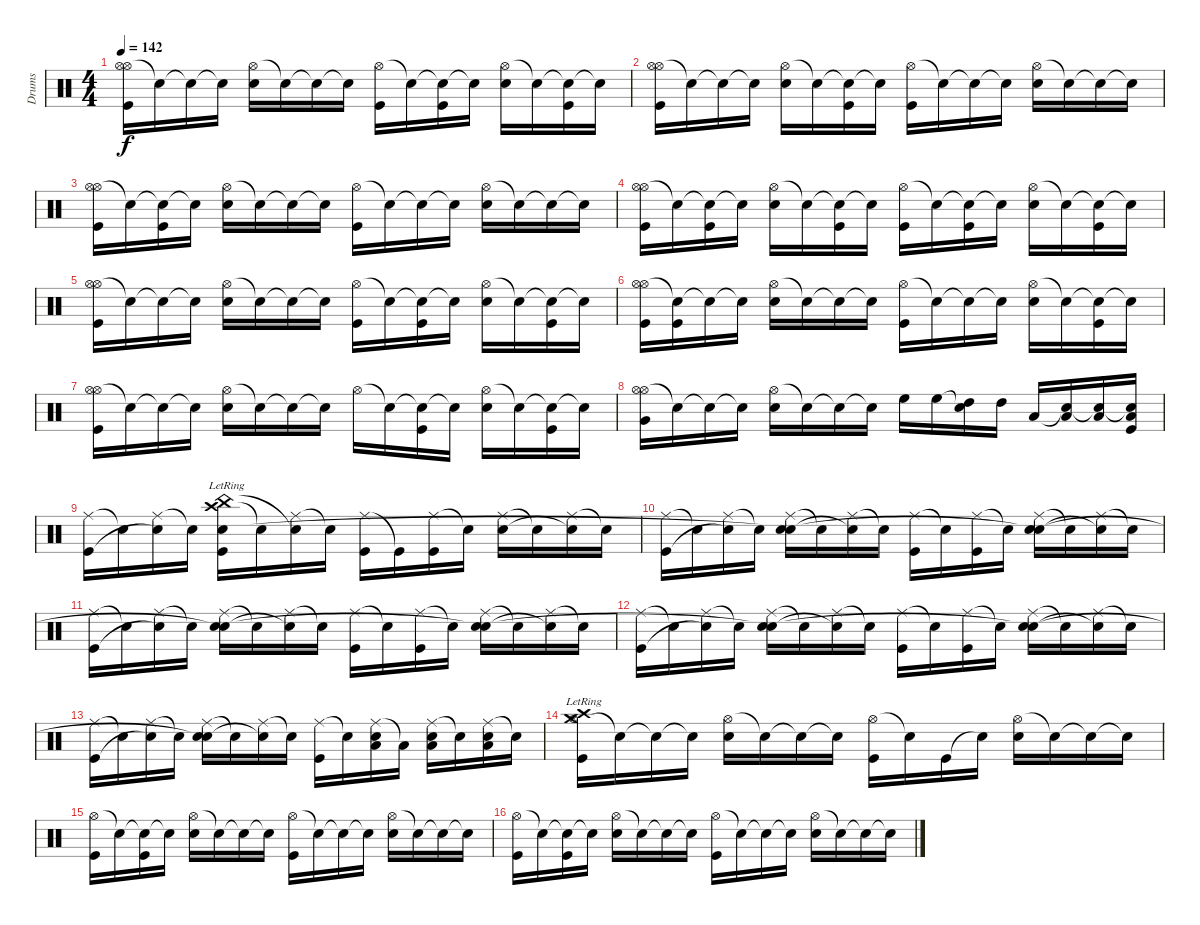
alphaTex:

\track ("Drums" "Drums") {instrument percussion}
\staff {score}
\articulation defaults
\ts (4 4)
\tempo 142
\clef neutral
\ks c
("Hi-Hat (open)" "Hi-Hat (open)" "Kick (hit)").16{dy f} "Snare (hit)"{t}.16 "Snare (hit)"{t}.16 "Snare (hit)"{t}.16 ("Hi-Hat (open)" "Snare (hit) 2").16 "Snare (hit)"{t}.16 "Snare (hit)"{t}.16 "Snare (hit)"{t}.16 ("Hi-Hat (open)" "Kick (hit)").16 "Snare (hit)"{t}.16 ("Snare (hit)"{t} "Kick (hit)").16 "Snare (hit)"{t}.16 ("Hi-Hat (open)" "Snare (hit) 2").16 "Snare (hit)"{t}.16 ("Snare (hit)"{t} "Kick (hit)").16 "Snare (hit)"{t}.16 |
("Hi-Hat (open)" "Hi-Hat (open)" "Kick (hit)").16 "Snare (hit)"{t}.16 "Snare (hit)"{t}.16 "Snare (hit)"{t}.16 ("Hi-Hat (open)" "Snare (hit) 2").16 "Snare (hit)"{t}.16 ("Snare (hit)"{t} "Kick (hit)").16 "Snare (hit)"{t}.16 ("Hi-Hat (open)" "Kick (hit)").16 "Snare (hit)"{t}.16 "Snare (hit)"{t}.16 "Snare (hit)"{t}.16 ("Hi-Hat (open)" "Snare (hit) 2").16 "Snare (hit)"{t}.16 "Snare (hit)"{t}.16 "Snare (hit)"{t}.16 |
("Hi-Hat (open)" "Hi-Hat (open)" "Kick (hit)").16 "Snare (hit)"{t}.16 ("Snare (hit)"{t} "Kick (hit)").16 "Snare (hit)"{t}.16 ("Hi-Hat (open)" "Snare (hit) 2").16 "Snare (hit)"{t}.16 "Snare (hit)"{t}.16 "Snare (hit)"{t}.16 ("Hi-Hat (open)" "Kick (hit)").16 "Snare (hit)"{t}.16 "Snare (hit)"{t}.16 "Snare (hit)"{t}.16 ("Hi-Hat (open)" "Snare (hit) 2").16 "Snare (hit)"{t}.16 "Snare (hit)"{t}.16 "Snare (hit)"{t}.16 |
("Hi-Hat (open)" "Hi-Hat (open)" "Kick (hit)").16 "Snare (hit)"{t}.16 ("Snare (hit)"{t} "Kick (hit)").16 "Snare (hit)"{t}.16 ("Hi-Hat (open)" "Snare (hit) 2").16 "Snare (hit)"{t}.16 ("Snare (hit)"{t} "Kick (hit)").16 "Snare (hit)"{t}.16 ("Hi-Hat (open)" "Kick (hit)").16 "Snare (hit)"{t}.16 ("Snare (hit)"{t} "Kick (hit)").16 "Snare (hit)"{t}.16 ("Hi-Hat (open)" "Snare (hit) 2").16 "Snare (hit)"{t}.16 ("Snare (hit)"{t} "Kick (hit)").16 "Snare (hit)"{t}.16 |
("Hi-Hat (open)" "Hi-Hat (open)" "Kick (hit)").16 "Snare (hit)"{t}.16 "Snare (hit)"{t}.16 "Snare (hit)"{t}.16 ("Hi-Hat (open)" "Snare (hit) 2").16 "Snare (hit)"{t}.16 "Snare (hit)"{t}.16 "Snare (hit)"{t}.16 ("Hi-Hat (open)" "Kick (hit)").16 "Snare (hit)"{t}.16 ("Snare (hit)"{t} "Kick (hit)").16 "Snare (hit)"{t}.16 ("Hi-Hat (open)" "Snare (hit) 2").16 "Snare (hit)"{t}.16 ("Snare (hit)"{t} "Kick (hit)").16 "Snare (hit)"{t}.16 |
("Hi-Hat (open)" "Hi-Hat (open)" "Kick (hit)").16 ("Snare (hit)"{t} "Kick (hit)").16 "Snare (hit)"{t}.16 "Snare (hit)"{t}.16 ("Hi-Hat (open)" "Snare (hit) 2").16 "Snare (hit)"{t}.16 "Snare (hit)"{t}.16 "Snare (hit)"{t}.16 ("Hi-Hat (open)" "Kick (hit)").16 "Snare (hit)"{t}.16 "Snare (hit)"{t}.16 "Snare (hit)"{t}.16 ("Hi-Hat (open)" "Snare (hit) 2").16 "Snare (hit)"{t}.16 ("Snare (hit)"{t} "Kick (hit)").16 "Snare (hit)"{t}.16 |
("Hi-Hat (open)" "Hi-Hat (open)" "Kick (hit)").16 "Snare (hit)"{t}.16 "Snare (hit)"{t}.16 "Snare (hit)"{t}.16 ("Hi-Hat (open)" "Snare (hit) 2").16 "Snare (hit)"{t}.16 "Snare (hit)"{t}.16 "Snare (hit)"{t}.16 "Hi-Hat (open)".16 "Snare (hit)"{t}.16 ("Snare (hit)"{t} "Kick (hit)").16 "Snare (hit)"{t}.16 ("Hi-Hat (open)" "Snare (hit) 2").16 "Snare (hit)"{t}.16 ("Snare (hit)"{t} "Kick (hit)").16 "Snare (hit)"{t}.16 |
("Hi-Hat (open)" "Hi-Hat (open)" "Very Low Tom (hit)").16 "Snare (hit)"{t}.16 "Snare (hit)"{t}.16 "Snare (hit)"{t}.16 ("Hi-Hat (open)" "Snare (hit) 2").16 "Snare (hit)"{t}.16 "Snare (hit)"{t}.16 "Snare (hit)"{t}.16 "High Floor Tom (hit)".16 "High Floor Tom (hit)".16 ("Snare (hit)"{t} "High Tom (hit)").16 "High Tom (hit)".16 "Low Tom (hit)".16 ("Snare (hit)"{t} "Low Tom (hit)").16 ("Snare (hit)"{t} "Low Floor Tom (hit)").16 ("Snare (hit)"{t} "Low Floor Tom (hit)" "Kick (hit)").16 |
("Ride (middle)" "Kick (hit)").16 "Snare (hit)"{t}.16 ("Ride (middle)" "Snare (hit)"{t}).16 "Snare (hit)"{t}.16 ("Crash high (hit)"{lr} "China (hit)"{lr} "Snare (hit) 2" "Kick (hit)").16 "Snare (hit)"{t}.16 ("Ride (middle)" "Snare (hit)"{t}).16 "Snare (hit)"{t}.16 ("Ride (middle)" "Kick (hit)").16 "Kick (hit)"{t}.16 ("Ride (middle)" "Kick (hit)").16 "Snare (hit)"{t}.16 ("Ride (middle)" "Snare (hit) 2").16 "Snare (hit)"{t}.16 ("Ride (middle)" "Snare (hit)"{t}).16 "Snare (hit)"{t}.16 |
("Ride (middle)" "Kick (hit)").16 "Snare (hit)"{t}.16 ("Ride (middle)" "Snare (hit)"{t}).16 "Snare (hit)"{t}.16 ("Ride (middle)" "Snare (hit) 2" "Snare (hit)"{t}).16 "Snare (hit)"{t}.16 ("Ride (middle)" "Snare (hit)"{t}).16 "Snare (hit)"{t}.16 ("Ride (middle)" "Kick (hit)").16 "Snare (hit)"{t}.16 ("Ride (middle)" "Kick (hit)").16 "Snare (hit)"{t}.16 ("Ride (middle)" "Snare (hit) 2" "Snare (hit)"{t}).16 "Snare (hit)"{t}.16 ("Ride (middle)" "Snare (hit)"{t}).16 "Snare (hit)"{t}.16 |
("Ride (middle)" "Kick (hit)").16 "Snare (hit)"{t}.16 ("Ride (middle)" "Snare (hit)"{t}).16 "Snare (hit)"{t}.16 ("Ride (middle)" "Snare (hit) 2" "Snare (hit)"{t}).16 "Snare (hit)"{t}.16 ("Ride (middle)" "Snare (hit)"{t}).16 "Snare (hit)"{t}.16 ("Ride (middle)" "Kick (hit)").16 "Snare (hit)"{t}.16 ("Ride (middle)" "Kick (hit)").16 "Snare (hit)"{t}.16 ("Ride (middle)" "Snare (hit) 2" "Snare (hit)"{t}).16 "Snare (hit)"{t}.16 ("Ride (middle)" "Snare (hit)"{t}).16 "Snare (hit)"{t}.16 |
("Ride (middle)" "Kick (hit)").16 "Snare (hit)"{t}.16 ("Ride (middle)" "Snare (hit)"{t}).16 "Snare (hit)"{t}.16 ("Ride (middle)" "Snare (hit) 2" "Snare (hit)"{t}).16 "Snare (hit)"{t}.16 ("Ride (middle)" "Snare (hit)"{t}).16 "Snare (hit)"{t}.16 ("Ride (middle)" "Kick (hit)").16 "Snare (hit)"{t}.16 ("Ride (middle)" "Kick (hit)").16 "Snare (hit)"{t}.16 ("Ride (middle)" "Snare (hit) 2" "Snare (hit)"{t}).16 "Snare (hit)"{t}.16 ("Ride (middle)" "Snare (hit)"{t}).16 "Snare (hit)"{t}.16 |
("Ride (middle)" "Kick (hit)").16 "Snare (hit)"{t}.16 ("Ride (middle)" "Snare (hit)"{t}).16 "Snare (hit)"{t}.16 ("Ride (middle)" "Snare (hit) 2" "Snare (hit)"{t}).16 "Snare (hit)"{t}.16 ("Ride (middle)" "Snare (hit)"{t}).16 "Snare (hit)"{t}.16 ("Ride (middle)" "Kick (hit)").16 "Snare (hit)"{t}.16 ("Ride (middle)" "Snare (hit) 2" "Low Floor Tom (hit)").16 "Low Tom (hit)"{t}.16 ("Ride (middle)" "Snare (hit) 2" "Low Floor Tom (hit)").16 "Snare (hit)"{t}.16 ("Ride (middle)" "Snare (hit) 2" "Low Floor Tom (hit)").16 "Snare (hit)"{t}.16 |
("Hi-Hat (open)"{lr} "Crash high (hit)"{lr} "Crash medium (hit)"{lr} "Kick (hit)").16 "Snare (hit)"{t}.16 "Snare (hit)"{t}.16 "Snare (hit)"{t}.16 ("Hi-Hat (open)" "Snare (hit) 2").16 "Snare (hit)"{t}.16 "Snare (hit)"{t}.16 "Snare (hit)"{t}.16 ("Hi-Hat (open)" "Kick (hit)").16 "Snare (hit)"{t}.16 "Kick (hit)".16 "Snare (hit)"{t}.16 ("Hi-Hat (open)" "Snare (hit) 2").16 "Snare (hit)"{t}.16 "Snare (hit)"{t}.16 "Snare (hit)"{t}.16 |
("Hi-Hat (open)" "Kick (hit)").16 "Snare (hit)"{t}.16 ("Snare (hit)"{t} "Kick (hit)").16 "Snare (hit)"{t}.16 ("Hi-Hat (open)" "Snare (hit) 2").16 "Snare (hit)"{t}.16 "Snare (hit)"{t}.16 "Snare (hit)"{t}.16 ("Hi-Hat (open)" "Kick (hit)").16 "Snare (hit)"{t}.16 "Snare (hit)"{t}.16 "Snare (hit)"{t}.16 ("Hi-Hat (open)" "Snare (hit) 2").16 "Snare (hit)"{t}.16 "Snare (hit)"{t}.16 "Snare (hit)"{t}.16 |
("Hi-Hat (open)" "Kick (hit)").16 "Snare (hit)"{t}.16 ("Snare (hit)"{t} "Kick (hit)").16 "Snare (hit)"{t}.16 ("Hi-Hat (open)" "Snare (hit) 2").16 "Snare (hit)"{t}.16 "Snare (hit)"{t}.16 "Snare (hit)"{t}.16 ("Hi-Hat (open)" "Kick (hit)").16 "Snare (hit)"{t}.16 "Snare (hit)"{t}.16 "Snare (hit)"{t}.16 ("Hi-Hat (open)" "Snare (hit) 2").16 "Snare (hit)"{t}.16 "Snare (hit)"{t}.16 "Snare (hit)"{t}.16
